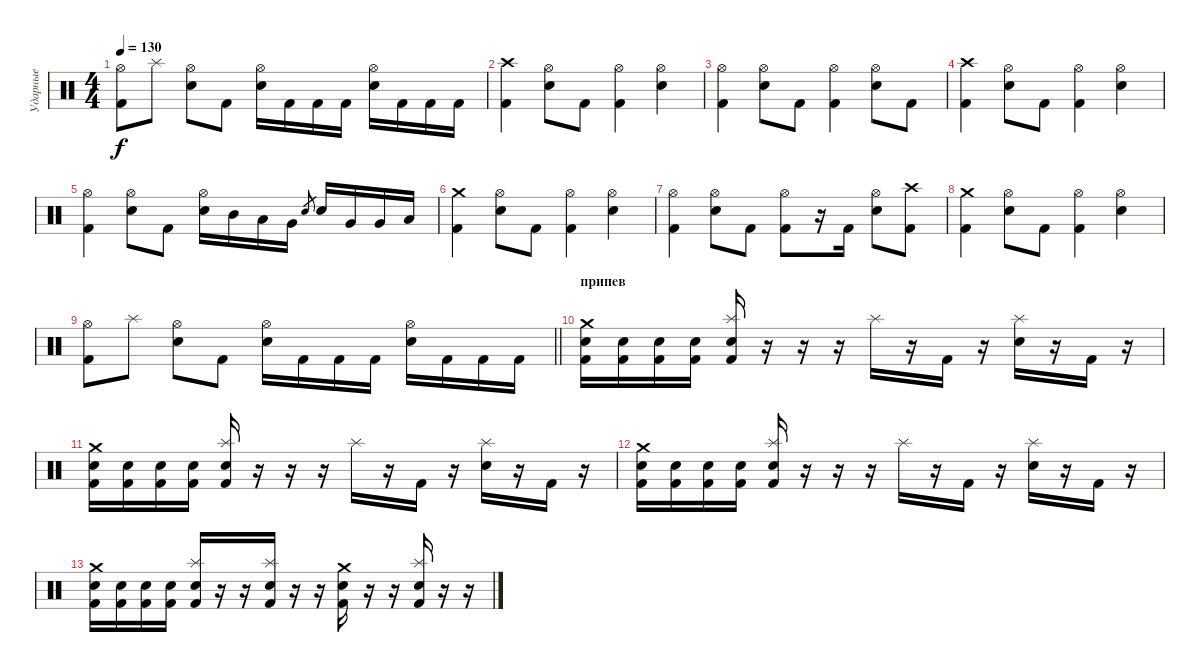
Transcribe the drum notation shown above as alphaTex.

\track ("Ударные" "Ударные") {instrument percussion}
\staff {score}
\articulation defaults
\ts (4 4)
\tempo 130
\clef neutral
\ks c
("Hi-Hat (open)" "Kick (hit) 2").8{dy f} "Splash (hit)".8 ("Hi-Hat (open)" "Electric Snare (hit)").8 "Kick (hit) 2".8 ("Hi-Hat (open)" "Electric Snare (hit)").16 "Kick (hit) 2".16 "Kick (hit) 2".16 "Kick (hit) 2".16 ("Hi-Hat (open)" "Electric Snare (hit)").16 "Kick (hit) 2".16 "Kick (hit) 2".16 "Kick (hit) 2".16 |
("Crash high (hit)" "Kick (hit) 2").4 ("Hi-Hat (open)" "Electric Snare (hit)").8 "Kick (hit) 2".8 ("Hi-Hat (open)" "Kick (hit) 2").4 ("Hi-Hat (open)" "Electric Snare (hit)").4 |
("Hi-Hat (open)" "Kick (hit) 2").4 ("Hi-Hat (open)" "Electric Snare (hit)").8 "Kick (hit) 2".8 ("Hi-Hat (open)" "Kick (hit) 2").4 ("Hi-Hat (open)" "Electric Snare (hit)").8 "Kick (hit) 2".8 |
("Crash high (hit)" "Kick (hit) 2").4 ("Hi-Hat (open)" "Electric Snare (hit)").8 "Kick (hit) 2".8 ("Hi-Hat (open)" "Kick (hit) 2").4 ("Hi-Hat (open)" "Electric Snare (hit)").4 |
("Hi-Hat (open)" "Kick (hit) 2").4 ("Hi-Hat (open)" "Electric Snare (hit)").8 "Kick (hit) 2".8 ("Hi-Hat (open)" "Electric Snare (hit)").16 "Mid Tom (hit)".16 "Low Tom (hit)".16 "Very Low Tom (hit)".16 "Electric Snare (hit)".8{gr} "Electric Snare (hit)".16 "Very Low Tom (hit)".16 "Very Low Tom (hit)".16 "Low Floor Tom (hit)".16 |
("Crash medium (hit)" "Kick (hit) 2").4 ("Hi-Hat (open)" "Electric Snare (hit)").8 "Kick (hit) 2".8 ("Hi-Hat (open)" "Kick (hit) 2").4 ("Hi-Hat (open)" "Electric Snare (hit)").4 |
("Hi-Hat (open)" "Kick (hit) 2").4 ("Hi-Hat (open)" "Electric Snare (hit)").8 "Kick (hit) 2".8 ("Hi-Hat (open)" "Kick (hit) 2").8 r.16 "Kick (hit) 2".16 ("Hi-Hat (open)" "Electric Snare (hit)").8 ("Crash high (hit)" "Kick (hit) 2").8 |
("Crash medium (hit)" "Kick (hit) 2").4 ("Hi-Hat (open)" "Electric Snare (hit)").8 "Kick (hit) 2".8 ("Hi-Hat (open)" "Kick (hit) 2").4 ("Hi-Hat (open)" "Electric Snare (hit)").4 |
\barLineRight lightlight
("Hi-Hat (open)" "Kick (hit) 2").8 "Splash (hit)".8 ("Hi-Hat (open)" "Electric Snare (hit)").8 "Kick (hit) 2".8 ("Hi-Hat (open)" "Electric Snare (hit)").16 "Kick (hit) 2".16 "Kick (hit) 2".16 "Kick (hit) 2".16 ("Hi-Hat (open)" "Electric Snare (hit)").16 "Kick (hit) 2".16 "Kick (hit) 2".16 "Kick (hit) 2".16 |
\section ("" "припев")
("Crash medium (hit)" "Electric Snare (hit)" "Kick (hit) 2").16 ("Electric Snare (hit)" "Kick (hit) 2").16 ("Electric Snare (hit)" "Kick (hit) 2").16 ("Electric Snare (hit)" "Kick (hit) 2").16 ("Splash (hit)" "Electric Snare (hit)" "Kick (hit) 2").16 r.16 r.16 r.16 "Splash (hit)".16 r.16 "Kick (hit) 2".16 r.16 ("Splash (hit)" "Electric Snare (hit)").16 r.16 "Kick (hit) 2".16 r.16 |
("Crash medium (hit)" "Electric Snare (hit)" "Kick (hit) 2").16 ("Electric Snare (hit)" "Kick (hit) 2").16 ("Electric Snare (hit)" "Kick (hit) 2").16 ("Electric Snare (hit)" "Kick (hit) 2").16 ("Splash (hit)" "Electric Snare (hit)" "Kick (hit) 2").16 r.16 r.16 r.16 "Splash (hit)".16 r.16 "Kick (hit) 2".16 r.16 ("Splash (hit)" "Electric Snare (hit)").16 r.16 "Kick (hit) 2".16 r.16 |
("Crash medium (hit)" "Electric Snare (hit)" "Kick (hit) 2").16 ("Electric Snare (hit)" "Kick (hit) 2").16 ("Electric Snare (hit)" "Kick (hit) 2").16 ("Electric Snare (hit)" "Kick (hit) 2").16 ("Splash (hit)" "Electric Snare (hit)" "Kick (hit) 2").16 r.16 r.16 r.16 "Splash (hit)".16 r.16 "Kick (hit) 2".16 r.16 ("Splash (hit)" "Electric Snare (hit)").16 r.16 "Kick (hit) 2".16 r.16 |
("Crash medium (hit)" "Electric Snare (hit)" "Kick (hit) 2").16 ("Electric Snare (hit)" "Kick (hit) 2").16 ("Electric Snare (hit)" "Kick (hit) 2").16 ("Electric Snare (hit)" "Kick (hit) 2").16 ("Splash (hit)" "Electric Snare (hit)" "Kick (hit) 2").16 r.16 r.16 ("Splash (hit)" "Electric Snare (hit)" "Kick (hit) 2").16 r.16 r.16 ("Crash medium (hit)" "Electric Snare (hit)" "Kick (hit) 2").16 r.16 r.16 ("Splash (hit)" "Electric Snare (hit)" "Kick (hit) 2").16 r.16 r.16
